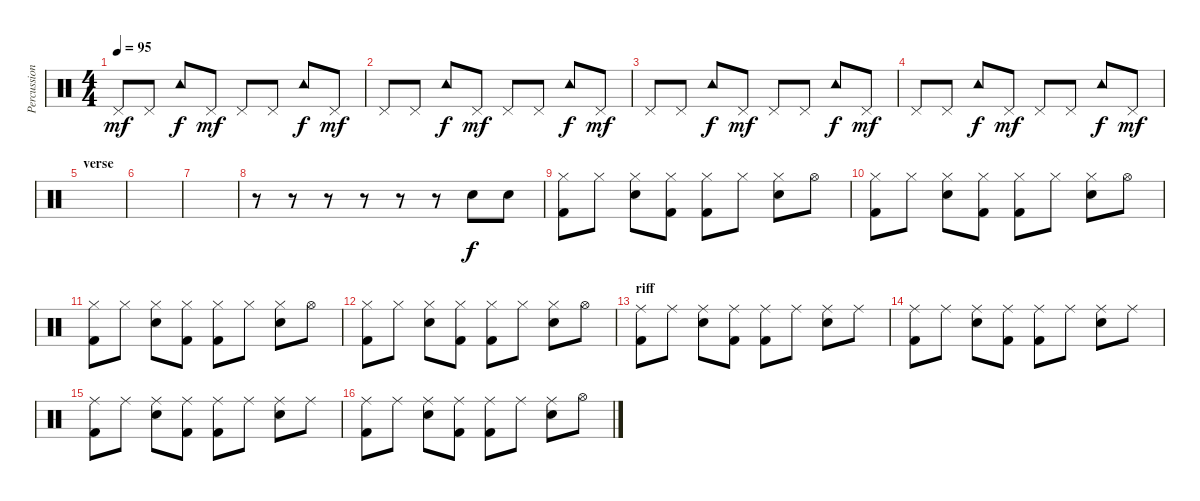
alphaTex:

\track ("Percussion" "Percussion") {instrument percussion}
\staff {score}
\articulation defaults
\ts (4 4)
\tempo 95
\clef neutral
\ks c "Pedal Hi-Hat (hit)".8{dy mf} "Pedal Hi-Hat (hit)".8 "Tambourine (hit)".8{dy f} "Pedal Hi-Hat (hit)".8{dy mf} "Pedal Hi-Hat (hit)".8 "Pedal Hi-Hat (hit)".8 "Tambourine (hit)".8{dy f} "Pedal Hi-Hat (hit)".8{dy mf}
|
"Pedal Hi-Hat (hit)".8 "Pedal Hi-Hat (hit)".8 "Tambourine (hit)".8{dy f} "Pedal Hi-Hat (hit)".8{dy mf} "Pedal Hi-Hat (hit)".8 "Pedal Hi-Hat (hit)".8 "Tambourine (hit)".8{dy f} "Pedal Hi-Hat (hit)".8{dy mf} |
"Pedal Hi-Hat (hit)".8 "Pedal Hi-Hat (hit)".8 "Tambourine (hit)".8{dy f} "Pedal Hi-Hat (hit)".8{dy mf} "Pedal Hi-Hat (hit)".8 "Pedal Hi-Hat (hit)".8 "Tambourine (hit)".8{dy f} "Pedal Hi-Hat (hit)".8{dy mf} |
"Pedal Hi-Hat (hit)".8 "Pedal Hi-Hat (hit)".8 "Tambourine (hit)".8{dy f} "Pedal Hi-Hat (hit)".8{dy mf} "Pedal Hi-Hat (hit)".8 "Pedal Hi-Hat (hit)".8 "Tambourine (hit)".8{dy f} "Pedal Hi-Hat (hit)".8{dy mf} |
\section ("" "verse")
|
|
|
r.8 r.8 r.8 r.8 r.8 r.8 "Snare (hit) 2".8{dy f} "Snare (hit) 2".8 |
("Hi-Hat (closed)" "Kick (hit) 2").8 "Hi-Hat (closed)".8 ("Hi-Hat (closed)" "Snare (hit) 2").8 ("Hi-Hat (closed)" "Kick (hit) 2").8 ("Hi-Hat (closed)" "Kick (hit) 2").8 "Hi-Hat (closed)".8 ("Hi-Hat (closed)" "Snare (hit) 2").8 "Hi-Hat (open)".8 |
("Hi-Hat (closed)" "Kick (hit) 2").8 "Hi-Hat (closed)".8 ("Hi-Hat (closed)" "Snare (hit) 2").8 ("Hi-Hat (closed)" "Kick (hit) 2").8 ("Hi-Hat (closed)" "Kick (hit) 2").8 "Hi-Hat (closed)".8 ("Hi-Hat (closed)" "Snare (hit) 2").8 "Hi-Hat (open)".8 |
("Hi-Hat (closed)" "Kick (hit) 2").8 "Hi-Hat (closed)".8 ("Hi-Hat (closed)" "Snare (hit) 2").8 ("Hi-Hat (closed)" "Kick (hit) 2").8 ("Hi-Hat (closed)" "Kick (hit) 2").8 "Hi-Hat (closed)".8 ("Hi-Hat (closed)" "Snare (hit) 2").8 "Hi-Hat (open)".8 |
("Hi-Hat (closed)" "Kick (hit) 2").8 "Hi-Hat (closed)".8 ("Hi-Hat (closed)" "Snare (hit) 2").8 ("Hi-Hat (closed)" "Kick (hit) 2").8 ("Hi-Hat (closed)" "Kick (hit) 2").8 "Hi-Hat (closed)".8 ("Hi-Hat (closed)" "Snare (hit) 2").8 "Hi-Hat (open)".8 |
\section ("" "riff")
("Ride (middle)" "Kick (hit) 2").8 "Ride (middle)".8 ("Ride (middle)" "Snare (hit) 2").8 ("Ride (middle)" "Kick (hit) 2").8 ("Ride (middle)" "Kick (hit) 2").8 "Ride (middle)".8 ("Ride (middle)" "Snare (hit) 2").8 "Ride (middle)".8 |
("Ride (middle)" "Kick (hit) 2").8 "Ride (middle)".8 ("Ride (middle)" "Snare (hit) 2").8 ("Ride (middle)" "Kick (hit) 2").8 ("Ride (middle)" "Kick (hit) 2").8 "Ride (middle)".8 ("Ride (middle)" "Snare (hit) 2").8 "Ride (middle)".8 |
("Ride (middle)" "Kick (hit) 2").8 "Ride (middle)".8 ("Ride (middle)" "Snare (hit) 2").8 ("Ride (middle)" "Kick (hit) 2").8 ("Ride (middle)" "Kick (hit) 2").8 "Ride (middle)".8 ("Ride (middle)" "Snare (hit) 2").8 "Ride (middle)".8 |
("Ride (middle)" "Kick (hit) 2").8 "Ride (middle)".8 ("Ride (middle)" "Snare (hit) 2").8 ("Ride (middle)" "Kick (hit) 2").8 ("Ride (middle)" "Kick (hit) 2").8 "Ride (middle)".8 ("Ride (middle)" "Snare (hit) 2").8 "Hi-Hat (open)".8
